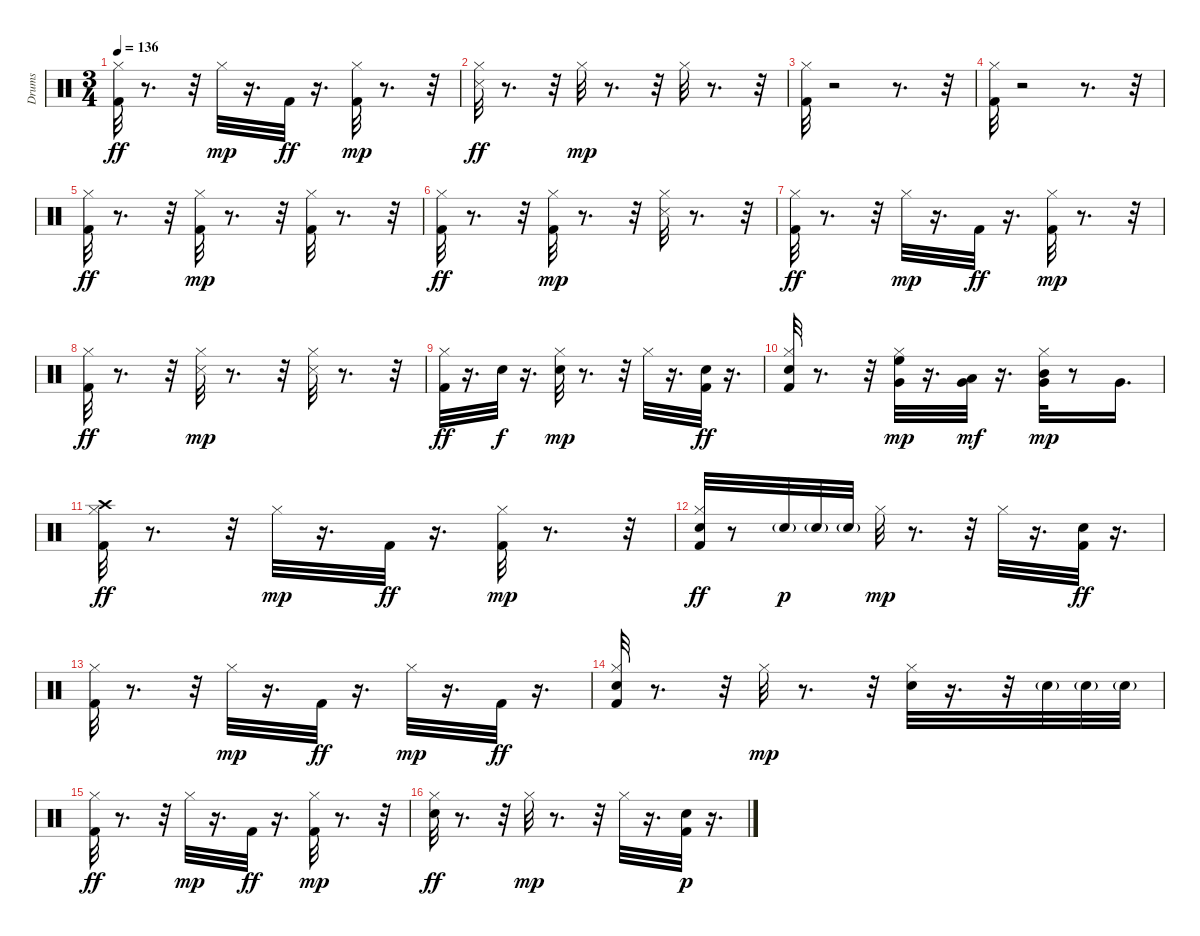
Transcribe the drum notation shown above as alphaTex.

\track ("Drums  " "Drums  ") {instrument percussion}
\staff {score}
\articulation defaults
\ts (3 4)
\tempo 136
\clef neutral
\ks c
("Kick (hit) 2" "Hi-Hat (closed)").32{dy ff} r.8{d} r.32 "Hi-Hat (closed)".32{dy mp} r.16{d} "Kick (hit) 2".32{dy ff} r.16{d} ("Kick (hit) 2" "Hi-Hat (closed)").32{dy mp} r.8{d} r.32 |
("Hi-Hat (closed)" "Snare (side stick) 3").32{dy ff} r.8{d} r.32 "Hi-Hat (closed)".32{dy mp} r.8{d} r.32 "Hi-Hat (closed)".32 r.8{d} r.32 |
("Kick (hit) 2" "Hi-Hat (closed)").32 r.2 r.8{d} r.32 |
("Kick (hit) 2" "Hi-Hat (closed)").32 r.2 r.8{d} r.32 |
("Kick (hit) 2" "Hi-Hat (closed)").32{dy ff} r.8{d} r.32 ("Kick (hit) 2" "Hi-Hat (closed)").32{dy mp} r.8{d} r.32 ("Kick (hit) 2" "Hi-Hat (closed)").32 r.8{d} r.32 |
("Kick (hit) 2" "Hi-Hat (closed)").32{dy ff} r.8{d} r.32 ("Kick (hit) 2" "Hi-Hat (closed)").32{dy mp} r.8{d} r.32 ("Hi-Hat (closed)" "Snare (side stick) 3").32 r.8{d} r.32 |
("Kick (hit) 2" "Hi-Hat (closed)").32{dy ff} r.8{d} r.32 "Hi-Hat (closed)".32{dy mp} r.16{d} "Kick (hit) 2".32{dy ff} r.16{d} ("Kick (hit) 2" "Hi-Hat (closed)").32{dy mp} r.8{d} r.32 |
("Kick (hit) 2" "Hi-Hat (closed)").32{dy ff} r.8{d} r.32 ("Hi-Hat (closed)" "Snare (side stick) 3").32{dy mp} r.8{d} r.32 ("Hi-Hat (closed)" "Snare (side stick) 3").32 r.8{d} r.32 |
("Kick (hit) 2" "Hi-Hat (closed)").32{dy ff} r.16{d} "Snare (hit) 2".32{dy f} r.16{d} ("Snare (hit) 2" "Hi-Hat (closed)").32{dy mp} r.8{d} r.32 "Hi-Hat (closed)".32 r.16{d} ("Kick (hit) 2" "Snare (hit) 2").32{dy ff} r.16{d} |
("Snare (hit) 2" "Kick (hit) 2" "Hi-Hat (closed)").32 r.8{d} r.32 ("High Floor Tom (hit)" "Very Low Tom (hit)" "Hi-Hat (closed)").32{dy mp} r.16{d} ("Low Tom (hit)" "Very Low Tom (hit)").32{dy mf} r.16{d} ("Mid Tom (hit)" "Very Low Tom (hit)" "Hi-Hat (closed)").32{dy mp} r.8 "Very Low Tom (hit)".16{d} |
("Kick (hit) 2" "Hi-Hat (closed)" "Crash high (hit)").32{dy ff} r.8{d} r.32 "Hi-Hat (closed)".32{dy mp} r.16{d} "Kick (hit) 2".32{dy ff} r.16{d} ("Kick (hit) 2" "Hi-Hat (closed)").32{dy mp} r.8{d} r.32 |
("Snare (hit) 2" "Kick (hit) 2" "Hi-Hat (closed)").32{dy ff} r.8 "Snare (hit) 2"{g}.32{dy p} "Snare (hit) 2"{g}.32 "Snare (hit) 2"{g}.32 "Hi-Hat (closed)".32{dy mp} r.8{d} r.32 "Hi-Hat (closed)".32 r.16{d} ("Kick (hit) 2" "Snare (hit) 2").32{dy ff} r.16{d} |
("Kick (hit) 2" "Hi-Hat (closed)").32 r.8{d} r.32 "Hi-Hat (closed)".32{dy mp} r.16{d} "Kick (hit) 2".32{dy ff} r.16{d} "Hi-Hat (closed)".32{dy mp} r.16{d} "Kick (hit) 2".32{dy ff} r.16{d} |
("Snare (hit) 2" "Kick (hit) 2" "Hi-Hat (closed)").32 r.8{d} r.32 "Hi-Hat (closed)".32{dy mp} r.8{d} r.32 ("Snare (hit) 2" "Hi-Hat (closed)").32 r.16{d} r.32 "Snare (hit) 2"{g}.32 "Snare (hit) 2"{g}.32 "Snare (hit) 2"{g}.32 |
("Kick (hit) 2" "Hi-Hat (closed)").32{dy ff} r.8{d} r.32 "Hi-Hat (closed)".32{dy mp} r.16{d} "Kick (hit) 2".32{dy ff} r.16{d} ("Kick (hit) 2" "Hi-Hat (closed)").32{dy mp} r.8{d} r.32 |
("Snare (hit) 2" "Hi-Hat (closed)").32{dy ff} r.8{d} r.32 "Hi-Hat (closed)".32{dy mp} r.8{d} r.32 "Hi-Hat (closed)".32 r.16{d} ("Kick (hit) 2" "Snare (hit) 2").32{dy p} r.16{d}
